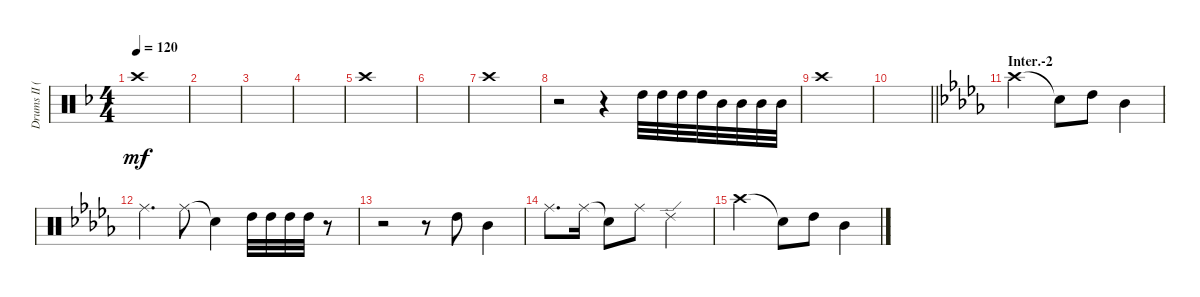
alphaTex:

\track ("Drums II (Tainaka Ritsu)" "Drums II (") {instrument percussion}
\staff {score}
\articulation defaults
\ts (4 4)
\tempo 120
\clef neutral
\ks f "Crash high (hit)".1{dy mf}
|
|
|
|
"Crash high (hit)".1 |
|
"Crash high (hit)".1 |
r.2 r.4 "High Tom (hit)".32 "High Tom (hit)".32 "High Tom (hit)".32 "High Tom (hit)".32 "Mid Tom (hit)".32 "Mid Tom (hit)".32 "Mid Tom (hit)".32 "Mid Tom (hit)".32 |
"Crash high (hit)".1 |
\barLineRight lightlight
|
\section ("" "Inter.-2")
\ks db "Crash high (hit)".2 "Snare (hit)"{t}.8 "High Tom (hit)".8 "Mid Tom (hit)".4
|
"Ride (middle)".4{d} "Ride (middle)".8 "Snare (hit)"{t}.4 "High Tom (hit)".32 "High Tom (hit)".32 "High Tom (hit)".32 "High Tom (hit)".32 r.8 |
r.2 r.8 "High Tom (hit)".8 "Mid Tom (hit)".4 |
"Ride (middle)".8{d} "Ride (middle)".16 "Snare (hit)"{t}.8 "Ride (middle)".8 "Ride (edge) 2".2 |
"Crash high (hit)".2 "Snare (hit)"{t}.8 "High Tom (hit)".8 "Mid Tom (hit)".4
